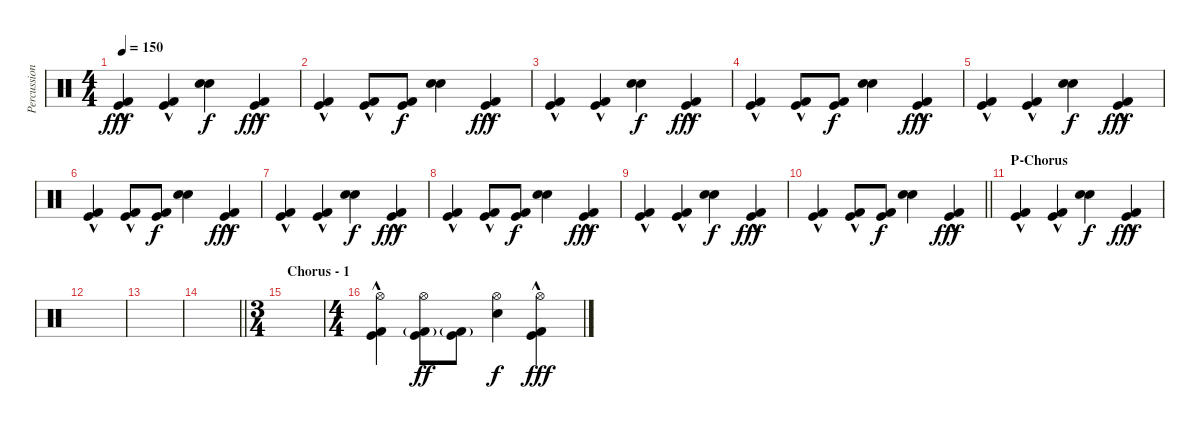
\track ("Percussion" "Percussion") {instrument percussion}
\staff {score}
\articulation defaults
\ts (4 4)
\tempo 150
\clef neutral
\ks c
("Kick (hit) 2"{hac} "Kick (hit)"{hac}).4{dy fff} ("Kick (hit) 2"{hac} "Kick (hit)"{hac}).4 ("Snare (hit) 2" "Electric Snare (hit)").4{dy f} ("Kick (hit) 2"{hac} "Kick (hit)"{hac}).4{dy fff} |
("Kick (hit) 2"{hac} "Kick (hit)"{hac}).4 ("Kick (hit) 2"{hac} "Kick (hit)"{hac}).8 ("Kick (hit) 2" "Kick (hit)").8{dy f} ("Snare (hit) 2" "Electric Snare (hit)").4 ("Kick (hit) 2"{hac} "Kick (hit)"{hac}).4{dy fff} |
("Kick (hit) 2"{hac} "Kick (hit)"{hac}).4 ("Kick (hit) 2"{hac} "Kick (hit)"{hac}).4 ("Snare (hit) 2" "Electric Snare (hit)").4{dy f} ("Kick (hit) 2"{hac} "Kick (hit)"{hac}).4{dy fff} |
("Kick (hit) 2"{hac} "Kick (hit)"{hac}).4 ("Kick (hit) 2"{hac} "Kick (hit)"{hac}).8 ("Kick (hit) 2" "Kick (hit)").8{dy f} ("Snare (hit) 2" "Electric Snare (hit)").4 ("Kick (hit) 2"{hac} "Kick (hit)"{hac}).4{dy fff} |
("Kick (hit) 2"{hac} "Kick (hit)"{hac}).4 ("Kick (hit) 2"{hac} "Kick (hit)"{hac}).4 ("Snare (hit) 2" "Electric Snare (hit)").4{dy f} ("Kick (hit) 2"{hac} "Kick (hit)"{hac}).4{dy fff} |
("Kick (hit) 2"{hac} "Kick (hit)"{hac}).4 ("Kick (hit) 2"{hac} "Kick (hit)"{hac}).8 ("Kick (hit) 2" "Kick (hit)").8{dy f} ("Snare (hit) 2" "Electric Snare (hit)").4 ("Kick (hit) 2"{hac} "Kick (hit)"{hac}).4{dy fff} |
("Kick (hit) 2"{hac} "Kick (hit)"{hac}).4 ("Kick (hit) 2"{hac} "Kick (hit)"{hac}).4 ("Snare (hit) 2" "Electric Snare (hit)").4{dy f} ("Kick (hit) 2"{hac} "Kick (hit)"{hac}).4{dy fff} |
("Kick (hit) 2"{hac} "Kick (hit)"{hac}).4 ("Kick (hit) 2"{hac} "Kick (hit)"{hac}).8 ("Kick (hit) 2" "Kick (hit)").8{dy f} ("Snare (hit) 2" "Electric Snare (hit)").4 ("Kick (hit) 2"{hac} "Kick (hit)"{hac}).4{dy fff} |
("Kick (hit) 2"{hac} "Kick (hit)"{hac}).4 ("Kick (hit) 2"{hac} "Kick (hit)"{hac}).4 ("Snare (hit) 2" "Electric Snare (hit)").4{dy f} ("Kick (hit) 2"{hac} "Kick (hit)"{hac}).4{dy fff} |
\barLineRight lightlight
("Kick (hit) 2"{hac} "Kick (hit)"{hac}).4 ("Kick (hit) 2"{hac} "Kick (hit)"{hac}).8 ("Kick (hit) 2" "Kick (hit)").8{dy f} ("Snare (hit) 2" "Electric Snare (hit)").4 ("Kick (hit) 2"{hac} "Kick (hit)"{hac}).4{dy fff} |
\section ("" "P-Chorus")
("Kick (hit) 2"{hac} "Kick (hit)"{hac}).4 ("Kick (hit) 2"{hac} "Kick (hit)"{hac}).4 ("Snare (hit) 2" "Electric Snare (hit)").4{dy f} ("Kick (hit) 2"{hac} "Kick (hit)"{hac}).4{dy fff} |
|
|
\barLineRight lightlight
|
\ts (3 4)
\section ("" "Chorus - 1")
|
\ts (4 4)
("Hi-Hat (open)" "Kick (hit) 2"{hac} "Kick (hit)"{hac}).4 ("Hi-Hat (open)" "Kick (hit) 2"{g} "Kick (hit)").8{dy ff} ("Kick (hit) 2"{g} "Kick (hit)").8 ("Hi-Hat (open)" "Electric Snare (hit)").4{dy f} ("Hi-Hat (open)" "Kick (hit) 2"{hac} "Kick (hit)"{hac}).4{dy fff}
